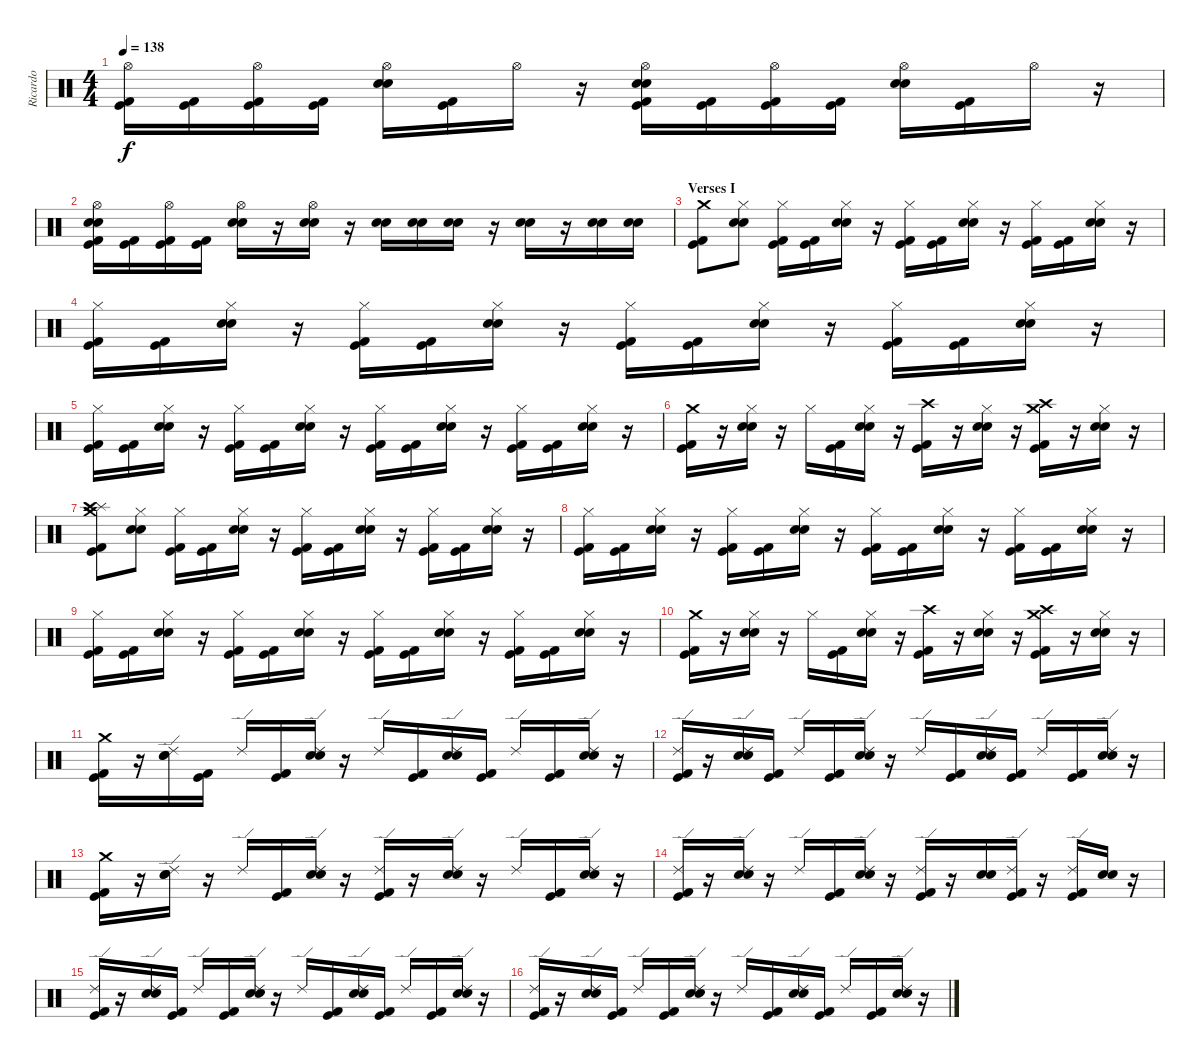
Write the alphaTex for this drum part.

\track ("Ricardo" "Ricardo") {instrument percussion}
\staff {score}
\articulation defaults
\ts (4 4)
\tempo 138
\clef neutral
\ks c
("Hi-Hat (open)" "Kick (hit) 2" "Kick (hit)").16{dy f} ("Kick (hit) 2" "Kick (hit)").16 ("Hi-Hat (open)" "Kick (hit) 2" "Kick (hit)").16 ("Kick (hit) 2" "Kick (hit)").16 ("Hi-Hat (open)" "Electric Snare (hit)" "Snare (hit) 2").16 ("Kick (hit) 2" "Kick (hit)").16 "Hi-Hat (open)".16 r.16 ("Electric Snare (hit)" "Snare (hit) 2" "Kick (hit) 2" "Kick (hit)" "Hi-Hat (open)").16 ("Kick (hit) 2" "Kick (hit)").16 ("Kick (hit) 2" "Kick (hit)" "Hi-Hat (open)").16 ("Kick (hit) 2" "Kick (hit)").16 ("Electric Snare (hit)" "Snare (hit) 2" "Hi-Hat (open)").16 ("Kick (hit) 2" "Kick (hit)").16 "Hi-Hat (open)".16 r.16 |
("Electric Snare (hit)" "Snare (hit) 2" "Hi-Hat (open)" "Kick (hit) 2" "Kick (hit)").16 ("Kick (hit) 2" "Kick (hit)").16 ("Hi-Hat (open)" "Kick (hit) 2" "Kick (hit)").16 ("Kick (hit) 2" "Kick (hit)").16 ("Hi-Hat (open)" "Electric Snare (hit)" "Snare (hit) 2").16 r.16 ("Electric Snare (hit)" "Snare (hit) 2" "Hi-Hat (open)").16 r.16 ("Snare (hit) 2" "Electric Snare (hit)").16 ("Snare (hit) 2" "Electric Snare (hit)").16 ("Snare (hit) 2" "Electric Snare (hit)").16 r.16 ("Snare (hit) 2" "Electric Snare (hit)").16 r.16 ("Snare (hit) 2" "Electric Snare (hit)").16 ("Snare (hit) 2" "Electric Snare (hit)").16 |
\section ("" "Verses I")
("Crash medium (hit)" "Kick (hit) 2" "Kick (hit)").8 ("Hi-Hat (closed)" "Electric Snare (hit)" "Snare (hit) 2").8 ("Hi-Hat (closed)" "Kick (hit) 2" "Kick (hit)").16 ("Kick (hit) 2" "Kick (hit)").16 ("Hi-Hat (closed)" "Electric Snare (hit)" "Snare (hit) 2").16 r.16 ("Hi-Hat (closed)" "Kick (hit) 2" "Kick (hit)").16 ("Kick (hit) 2" "Kick (hit)").16 ("Hi-Hat (closed)" "Electric Snare (hit)" "Snare (hit) 2").16 r.16 ("Hi-Hat (closed)" "Kick (hit) 2" "Kick (hit)").16 ("Kick (hit) 2" "Kick (hit)").16 ("Hi-Hat (closed)" "Electric Snare (hit)" "Snare (hit) 2").16 r.16 |
("Hi-Hat (closed)" "Kick (hit) 2" "Kick (hit)").16 ("Kick (hit) 2" "Kick (hit)").16 ("Hi-Hat (closed)" "Electric Snare (hit)" "Snare (hit) 2").16 r.16 ("Hi-Hat (closed)" "Kick (hit) 2" "Kick (hit)").16 ("Kick (hit) 2" "Kick (hit)").16 ("Hi-Hat (closed)" "Electric Snare (hit)" "Snare (hit) 2").16 r.16 ("Hi-Hat (closed)" "Kick (hit) 2" "Kick (hit)").16 ("Kick (hit) 2" "Kick (hit)").16 ("Hi-Hat (closed)" "Electric Snare (hit)" "Snare (hit) 2").16 r.16 ("Hi-Hat (closed)" "Kick (hit) 2" "Kick (hit)").16 ("Kick (hit) 2" "Kick (hit)").16 ("Hi-Hat (closed)" "Electric Snare (hit)" "Snare (hit) 2").16 r.16 |
("Hi-Hat (closed)" "Kick (hit) 2" "Kick (hit)").16 ("Kick (hit) 2" "Kick (hit)").16 ("Hi-Hat (closed)" "Electric Snare (hit)" "Snare (hit) 2").16 r.16 ("Hi-Hat (closed)" "Kick (hit) 2" "Kick (hit)").16 ("Kick (hit) 2" "Kick (hit)").16 ("Hi-Hat (closed)" "Electric Snare (hit)" "Snare (hit) 2").16 r.16 ("Hi-Hat (closed)" "Kick (hit) 2" "Kick (hit)").16 ("Kick (hit) 2" "Kick (hit)").16 ("Hi-Hat (closed)" "Electric Snare (hit)" "Snare (hit) 2").16 r.16 ("Hi-Hat (closed)" "Kick (hit) 2" "Kick (hit)").16 ("Kick (hit) 2" "Kick (hit)").16 ("Hi-Hat (closed)" "Electric Snare (hit)" "Snare (hit) 2").16 r.16 |
("Crash medium (hit)" "Kick (hit) 2" "Kick (hit)").16 r.16 ("Hi-Hat (closed)" "Electric Snare (hit)" "Snare (hit) 2").16 r.16 "Hi-Hat (closed)".16 ("Kick (hit) 2" "Kick (hit)").16 ("Hi-Hat (closed)" "Electric Snare (hit)" "Snare (hit) 2").16 r.16 ("Crash high (hit)" "Kick (hit) 2" "Kick (hit)").16 r.16 ("Hi-Hat (closed)" "Electric Snare (hit)" "Snare (hit) 2").16 r.16 ("Crash medium (hit)" "Crash high (hit)" "Kick (hit) 2" "Kick (hit)").16 r.16 ("Hi-Hat (closed)" "Electric Snare (hit)" "Snare (hit) 2").16 r.16 |
("Splash (hit)" "Crash high (hit)" "Crash medium (hit)" "Kick (hit) 2" "Kick (hit)").8 ("Hi-Hat (closed)" "Electric Snare (hit)" "Snare (hit) 2").8 ("Hi-Hat (closed)" "Kick (hit) 2" "Kick (hit)").16 ("Kick (hit) 2" "Kick (hit)").16 ("Hi-Hat (closed)" "Electric Snare (hit)" "Snare (hit) 2").16 r.16 ("Hi-Hat (closed)" "Kick (hit) 2" "Kick (hit)").16 ("Kick (hit) 2" "Kick (hit)").16 ("Hi-Hat (closed)" "Electric Snare (hit)" "Snare (hit) 2").16 r.16 ("Hi-Hat (closed)" "Kick (hit) 2" "Kick (hit)").16 ("Kick (hit) 2" "Kick (hit)").16 ("Hi-Hat (closed)" "Electric Snare (hit)" "Snare (hit) 2").16 r.16 |
("Hi-Hat (closed)" "Kick (hit) 2" "Kick (hit)").16 ("Kick (hit) 2" "Kick (hit)").16 ("Hi-Hat (closed)" "Electric Snare (hit)" "Snare (hit) 2").16 r.16 ("Hi-Hat (closed)" "Kick (hit) 2" "Kick (hit)").16 ("Kick (hit) 2" "Kick (hit)").16 ("Hi-Hat (closed)" "Electric Snare (hit)" "Snare (hit) 2").16 r.16 ("Hi-Hat (closed)" "Kick (hit) 2" "Kick (hit)").16 ("Kick (hit) 2" "Kick (hit)").16 ("Hi-Hat (closed)" "Electric Snare (hit)" "Snare (hit) 2").16 r.16 ("Hi-Hat (closed)" "Kick (hit) 2" "Kick (hit)").16 ("Kick (hit) 2" "Kick (hit)").16 ("Hi-Hat (closed)" "Electric Snare (hit)" "Snare (hit) 2").16 r.16 |
("Hi-Hat (closed)" "Kick (hit) 2" "Kick (hit)").16 ("Kick (hit) 2" "Kick (hit)").16 ("Hi-Hat (closed)" "Electric Snare (hit)" "Snare (hit) 2").16 r.16 ("Hi-Hat (closed)" "Kick (hit) 2" "Kick (hit)").16 ("Kick (hit) 2" "Kick (hit)").16 ("Hi-Hat (closed)" "Electric Snare (hit)" "Snare (hit) 2").16 r.16 ("Hi-Hat (closed)" "Kick (hit) 2" "Kick (hit)").16 ("Kick (hit) 2" "Kick (hit)").16 ("Hi-Hat (closed)" "Electric Snare (hit)" "Snare (hit) 2").16 r.16 ("Hi-Hat (closed)" "Kick (hit) 2" "Kick (hit)").16 ("Kick (hit) 2" "Kick (hit)").16 ("Hi-Hat (closed)" "Electric Snare (hit)" "Snare (hit) 2").16 r.16 |
("Crash medium (hit)" "Kick (hit) 2" "Kick (hit)").16 r.16 ("Hi-Hat (closed)" "Electric Snare (hit)" "Snare (hit) 2").16 r.16 "Hi-Hat (closed)".16 ("Kick (hit) 2" "Kick (hit)").16 ("Hi-Hat (closed)" "Electric Snare (hit)" "Snare (hit) 2").16 r.16 ("Crash high (hit)" "Kick (hit) 2" "Kick (hit)").16 r.16 ("Hi-Hat (closed)" "Electric Snare (hit)" "Snare (hit) 2").16 r.16 ("Crash high (hit)" "Kick (hit) 2" "Kick (hit)" "Crash medium (hit)").16 r.16 ("Hi-Hat (closed)" "Electric Snare (hit)" "Snare (hit) 2").16 r.16 |
("Crash medium (hit)" "Kick (hit) 2" "Kick (hit)").16 r.16 ("Ride (edge) 2" "Electric Snare (hit)" "Snare (hit) 2").16 ("Kick (hit) 2" "Kick (hit)").16 "Ride (edge) 2".16 ("Kick (hit) 2" "Kick (hit)").16 ("Ride (edge) 2" "Electric Snare (hit)" "Snare (hit) 2").16 r.16 "Ride (edge) 2".16 ("Kick (hit) 2" "Kick (hit)").16 ("Snare (hit) 2" "Electric Snare (hit)" "Ride (edge) 2").16 ("Kick (hit) 2" "Kick (hit)").16 "Ride (edge) 2".16 ("Kick (hit) 2" "Kick (hit)").16 ("Ride (edge) 2" "Electric Snare (hit)" "Snare (hit) 2").16 r.16 |
("Ride (edge) 2" "Kick (hit) 2" "Kick (hit)").16 r.16 ("Electric Snare (hit)" "Snare (hit) 2" "Ride (edge) 2").16 ("Kick (hit) 2" "Kick (hit)").16 "Ride (edge) 2".16 ("Kick (hit) 2" "Kick (hit)").16 ("Electric Snare (hit)" "Snare (hit) 2" "Ride (edge) 2").16 r.16 "Ride (edge) 2".16 ("Kick (hit) 2" "Kick (hit)").16 ("Snare (hit) 2" "Electric Snare (hit)" "Ride (edge) 2").16 ("Kick (hit)" "Kick (hit) 2").16 "Ride (edge) 2".16 ("Kick (hit) 2" "Kick (hit)").16 ("Electric Snare (hit)" "Snare (hit) 2" "Ride (edge) 2").16 r.16 |
("Crash medium (hit)" "Kick (hit) 2" "Kick (hit)").16 r.16 ("Electric Snare (hit)" "Snare (hit) 2" "Ride (edge) 2").16 r.16 "Ride (edge) 2".16 ("Kick (hit) 2" "Kick (hit)").16 ("Electric Snare (hit)" "Snare (hit) 2" "Ride (edge) 2").16 r.16 ("Ride (edge) 2" "Kick (hit) 2" "Kick (hit)").16 r.16 ("Electric Snare (hit)" "Snare (hit) 2" "Ride (edge) 2").16 r.16 "Ride (edge) 2".16 ("Kick (hit) 2" "Kick (hit)").16 ("Electric Snare (hit)" "Snare (hit) 2" "Ride (edge) 2").16 r.16 |
("Kick (hit) 2" "Ride (edge) 2" "Kick (hit)").16 r.16 ("Electric Snare (hit)" "Snare (hit) 2" "Ride (edge) 2").16 r.16 "Ride (edge) 2".16 ("Kick (hit) 2" "Kick (hit)").16 ("Electric Snare (hit)" "Snare (hit) 2" "Ride (edge) 2").16 r.16 ("Ride (edge) 2" "Kick (hit) 2" "Kick (hit)").16 r.16 ("Electric Snare (hit)" "Snare (hit) 2").16 ("Ride (edge) 2" "Kick (hit) 2" "Kick (hit)").16 r.16 ("Ride (edge) 2" "Kick (hit) 2" "Kick (hit)").16 ("Electric Snare (hit)" "Snare (hit) 2").16 r.16 |
("Ride (edge) 2" "Kick (hit) 2" "Kick (hit)").16 r.16 ("Electric Snare (hit)" "Snare (hit) 2" "Ride (edge) 2").16 ("Kick (hit) 2" "Kick (hit)").16 "Ride (edge) 2".16 ("Kick (hit) 2" "Kick (hit)").16 ("Electric Snare (hit)" "Snare (hit) 2" "Ride (edge) 2").16 r.16 "Ride (edge) 2".16 ("Kick (hit) 2" "Kick (hit)").16 ("Electric Snare (hit)" "Snare (hit) 2" "Ride (edge) 2").16 ("Kick (hit) 2" "Kick (hit)").16 "Ride (edge) 2".16 ("Kick (hit) 2" "Kick (hit)").16 ("Electric Snare (hit)" "Snare (hit) 2" "Ride (edge) 2").16 r.16 |
("Ride (edge) 2" "Kick (hit) 2" "Kick (hit)").16 r.16 ("Electric Snare (hit)" "Snare (hit) 2" "Ride (edge) 2").16 ("Kick (hit) 2" "Kick (hit)").16 "Ride (edge) 2".16 ("Kick (hit) 2" "Kick (hit)").16 ("Electric Snare (hit)" "Snare (hit) 2" "Ride (edge) 2").16 r.16 "Ride (edge) 2".16 ("Kick (hit) 2" "Kick (hit)").16 ("Electric Snare (hit)" "Snare (hit) 2" "Ride (edge) 2").16 ("Kick (hit) 2" "Kick (hit)").16 "Ride (edge) 2".16 ("Kick (hit) 2" "Kick (hit)").16 ("Electric Snare (hit)" "Snare (hit) 2" "Ride (edge) 2").16 r.16
